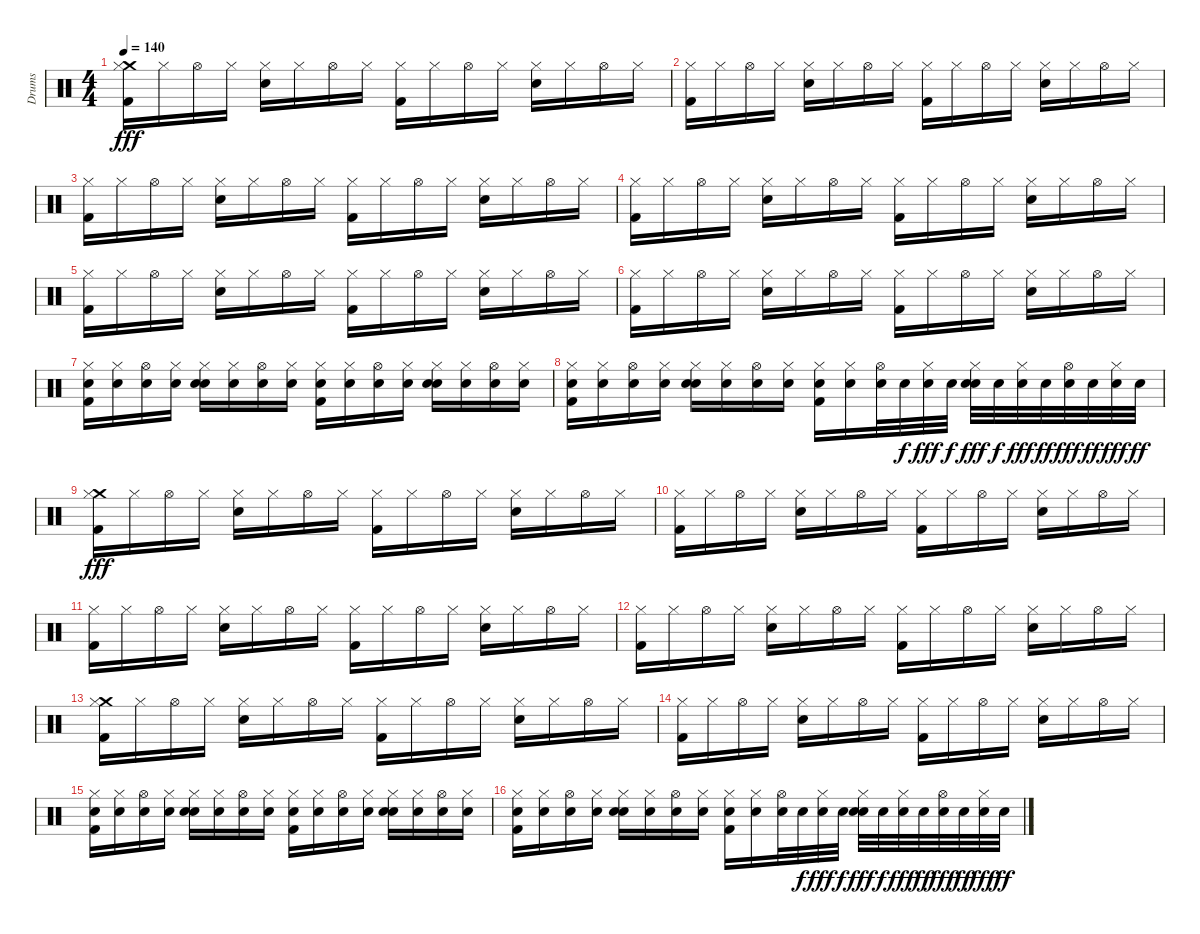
\track ("Drums" "Drums") {instrument percussion}
\staff {score}
\articulation defaults
\ts (4 4)
\tempo 140
\clef neutral
\ks c
("Crash medium (hit)" "Hi-Hat (closed)" "Kick (hit) 2").16{dy fff} "Hi-Hat (closed)".16 "Hi-Hat (open)".16 "Hi-Hat (closed)".16 ("Hi-Hat (closed)" "Electric Snare (hit)").16 "Hi-Hat (closed)".16 "Hi-Hat (open)".16 "Hi-Hat (closed)".16 ("Hi-Hat (closed)" "Kick (hit) 2").16 "Hi-Hat (closed)".16 "Hi-Hat (open)".16 "Hi-Hat (closed)".16 ("Hi-Hat (closed)" "Electric Snare (hit)").16 "Hi-Hat (closed)".16 "Hi-Hat (open)".16 "Hi-Hat (closed)".16 |
("Hi-Hat (closed)" "Kick (hit) 2").16 "Hi-Hat (closed)".16 "Hi-Hat (open)".16 "Hi-Hat (closed)".16 ("Hi-Hat (closed)" "Electric Snare (hit)").16 "Hi-Hat (closed)".16 "Hi-Hat (open)".16 "Hi-Hat (closed)".16 ("Hi-Hat (closed)" "Kick (hit) 2").16 "Hi-Hat (closed)".16 "Hi-Hat (open)".16 "Hi-Hat (closed)".16 ("Hi-Hat (closed)" "Electric Snare (hit)").16 "Hi-Hat (closed)".16 "Hi-Hat (open)".16 "Hi-Hat (closed)".16 |
("Hi-Hat (closed)" "Kick (hit) 2").16 "Hi-Hat (closed)".16 "Hi-Hat (open)".16 "Hi-Hat (closed)".16 ("Hi-Hat (closed)" "Electric Snare (hit)").16 "Hi-Hat (closed)".16 "Hi-Hat (open)".16 "Hi-Hat (closed)".16 ("Hi-Hat (closed)" "Kick (hit) 2").16 "Hi-Hat (closed)".16 "Hi-Hat (open)".16 "Hi-Hat (closed)".16 ("Hi-Hat (closed)" "Electric Snare (hit)").16 "Hi-Hat (closed)".16 "Hi-Hat (open)".16 "Hi-Hat (closed)".16 |
("Hi-Hat (closed)" "Kick (hit) 2").16 "Hi-Hat (closed)".16 "Hi-Hat (open)".16 "Hi-Hat (closed)".16 ("Hi-Hat (closed)" "Electric Snare (hit)").16 "Hi-Hat (closed)".16 "Hi-Hat (open)".16 "Hi-Hat (closed)".16 ("Hi-Hat (closed)" "Kick (hit) 2").16 "Hi-Hat (closed)".16 "Hi-Hat (open)".16 "Hi-Hat (closed)".16 ("Hi-Hat (closed)" "Electric Snare (hit)").16 "Hi-Hat (closed)".16 "Hi-Hat (open)".16 "Hi-Hat (closed)".16 |
("Hi-Hat (closed)" "Kick (hit) 2").16 "Hi-Hat (closed)".16 "Hi-Hat (open)".16 "Hi-Hat (closed)".16 ("Hi-Hat (closed)" "Electric Snare (hit)").16 "Hi-Hat (closed)".16 "Hi-Hat (open)".16 "Hi-Hat (closed)".16 ("Hi-Hat (closed)" "Kick (hit) 2").16 "Hi-Hat (closed)".16 "Hi-Hat (open)".16 "Hi-Hat (closed)".16 ("Hi-Hat (closed)" "Electric Snare (hit)").16 "Hi-Hat (closed)".16 "Hi-Hat (open)".16 "Hi-Hat (closed)".16 |
("Hi-Hat (closed)" "Kick (hit) 2").16 "Hi-Hat (closed)".16 "Hi-Hat (open)".16 "Hi-Hat (closed)".16 ("Hi-Hat (closed)" "Electric Snare (hit)").16 "Hi-Hat (closed)".16 "Hi-Hat (open)".16 "Hi-Hat (closed)".16 ("Hi-Hat (closed)" "Kick (hit) 2").16 "Hi-Hat (closed)".16 "Hi-Hat (open)".16 "Hi-Hat (closed)".16 ("Hi-Hat (closed)" "Electric Snare (hit)").16 "Hi-Hat (closed)".16 "Hi-Hat (open)".16 "Hi-Hat (closed)".16 |
("Snare (hit) 2" "Hi-Hat (closed)" "Kick (hit) 2").16 ("Snare (hit) 2" "Hi-Hat (closed)").16 ("Snare (hit) 2" "Hi-Hat (open)").16 ("Snare (hit) 2" "Hi-Hat (closed)").16 ("Snare (hit) 2" "Hi-Hat (closed)" "Electric Snare (hit)").16 ("Snare (hit) 2" "Hi-Hat (closed)").16 ("Snare (hit) 2" "Hi-Hat (open)").16 ("Snare (hit) 2" "Hi-Hat (closed)").16 ("Snare (hit) 2" "Hi-Hat (closed)" "Kick (hit) 2").16 ("Snare (hit) 2" "Hi-Hat (closed)").16 ("Snare (hit) 2" "Hi-Hat (open)").16 ("Snare (hit) 2" "Hi-Hat (closed)").16 ("Snare (hit) 2" "Hi-Hat (closed)" "Electric Snare (hit)").16 ("Snare (hit) 2" "Hi-Hat (closed)").16 ("Snare (hit) 2" "Hi-Hat (open)").16 ("Snare (hit) 2" "Hi-Hat (closed)").16 |
("Snare (hit) 2" "Hi-Hat (closed)" "Kick (hit) 2").16 ("Snare (hit) 2" "Hi-Hat (closed)").16 ("Snare (hit) 2" "Hi-Hat (open)").16 ("Snare (hit) 2" "Hi-Hat (closed)").16 ("Snare (hit) 2" "Hi-Hat (closed)" "Electric Snare (hit)").16 ("Snare (hit) 2" "Hi-Hat (closed)").16 ("Snare (hit) 2" "Hi-Hat (open)").16 ("Snare (hit) 2" "Hi-Hat (closed)").16 ("Snare (hit) 2" "Hi-Hat (closed)" "Kick (hit) 2").16 ("Snare (hit) 2" "Hi-Hat (closed)").16 ("Snare (hit) 2" "Hi-Hat (open)").32 "Snare (hit) 2".32{dy f} ("Snare (hit) 2" "Hi-Hat (closed)").32{dy fff} "Snare (hit) 2".32{dy f} ("Snare (hit) 2" "Hi-Hat (closed)" "Electric Snare (hit)").32{dy fff} "Snare (hit) 2".32{dy f} ("Snare (hit) 2" "Hi-Hat (closed)").32{dy fff} "Snare (hit) 2".32{dy ff} ("Snare (hit) 2" "Hi-Hat (open)").32{dy fff} "Snare (hit) 2".32{dy ff} ("Snare (hit) 2" "Hi-Hat (closed)").32{dy fff} "Snare (hit) 2".32{dy ff} |
("Crash medium (hit)" "Hi-Hat (closed)" "Kick (hit) 2").16{dy fff} "Hi-Hat (closed)".16 "Hi-Hat (open)".16 "Hi-Hat (closed)".16 ("Hi-Hat (closed)" "Electric Snare (hit)").16 "Hi-Hat (closed)".16 "Hi-Hat (open)".16 "Hi-Hat (closed)".16 ("Hi-Hat (closed)" "Kick (hit) 2").16 "Hi-Hat (closed)".16 "Hi-Hat (open)".16 "Hi-Hat (closed)".16 ("Hi-Hat (closed)" "Electric Snare (hit)").16 "Hi-Hat (closed)".16 "Hi-Hat (open)".16 "Hi-Hat (closed)".16 |
("Hi-Hat (closed)" "Kick (hit) 2").16 "Hi-Hat (closed)".16 "Hi-Hat (open)".16 "Hi-Hat (closed)".16 ("Hi-Hat (closed)" "Electric Snare (hit)").16 "Hi-Hat (closed)".16 "Hi-Hat (open)".16 "Hi-Hat (closed)".16 ("Hi-Hat (closed)" "Kick (hit) 2").16 "Hi-Hat (closed)".16 "Hi-Hat (open)".16 "Hi-Hat (closed)".16 ("Hi-Hat (closed)" "Electric Snare (hit)").16 "Hi-Hat (closed)".16 "Hi-Hat (open)".16 "Hi-Hat (closed)".16 |
("Hi-Hat (closed)" "Kick (hit) 2").16 "Hi-Hat (closed)".16 "Hi-Hat (open)".16 "Hi-Hat (closed)".16 ("Hi-Hat (closed)" "Electric Snare (hit)").16 "Hi-Hat (closed)".16 "Hi-Hat (open)".16 "Hi-Hat (closed)".16 ("Hi-Hat (closed)" "Kick (hit) 2").16 "Hi-Hat (closed)".16 "Hi-Hat (open)".16 "Hi-Hat (closed)".16 ("Hi-Hat (closed)" "Electric Snare (hit)").16 "Hi-Hat (closed)".16 "Hi-Hat (open)".16 "Hi-Hat (closed)".16 |
("Hi-Hat (closed)" "Kick (hit) 2").16 "Hi-Hat (closed)".16 "Hi-Hat (open)".16 "Hi-Hat (closed)".16 ("Hi-Hat (closed)" "Electric Snare (hit)").16 "Hi-Hat (closed)".16 "Hi-Hat (open)".16 "Hi-Hat (closed)".16 ("Hi-Hat (closed)" "Kick (hit) 2").16 "Hi-Hat (closed)".16 "Hi-Hat (open)".16 "Hi-Hat (closed)".16 ("Hi-Hat (closed)" "Electric Snare (hit)").16 "Hi-Hat (closed)".16 "Hi-Hat (open)".16 "Hi-Hat (closed)".16 |
("Crash medium (hit)" "Hi-Hat (closed)" "Kick (hit) 2").16 "Hi-Hat (closed)".16 "Hi-Hat (open)".16 "Hi-Hat (closed)".16 ("Hi-Hat (closed)" "Electric Snare (hit)").16 "Hi-Hat (closed)".16 "Hi-Hat (open)".16 "Hi-Hat (closed)".16 ("Hi-Hat (closed)" "Kick (hit) 2").16 "Hi-Hat (closed)".16 "Hi-Hat (open)".16 "Hi-Hat (closed)".16 ("Hi-Hat (closed)" "Electric Snare (hit)").16 "Hi-Hat (closed)".16 "Hi-Hat (open)".16 "Hi-Hat (closed)".16 |
("Hi-Hat (closed)" "Kick (hit) 2").16 "Hi-Hat (closed)".16 "Hi-Hat (open)".16 "Hi-Hat (closed)".16 ("Hi-Hat (closed)" "Electric Snare (hit)").16 "Hi-Hat (closed)".16 "Hi-Hat (open)".16 "Hi-Hat (closed)".16 ("Hi-Hat (closed)" "Kick (hit) 2").16 "Hi-Hat (closed)".16 "Hi-Hat (open)".16 "Hi-Hat (closed)".16 ("Hi-Hat (closed)" "Electric Snare (hit)").16 "Hi-Hat (closed)".16 "Hi-Hat (open)".16 "Hi-Hat (closed)".16 |
("Snare (hit) 2" "Hi-Hat (closed)" "Kick (hit) 2").16 ("Snare (hit) 2" "Hi-Hat (closed)").16 ("Snare (hit) 2" "Hi-Hat (open)").16 ("Snare (hit) 2" "Hi-Hat (closed)").16 ("Snare (hit) 2" "Hi-Hat (closed)" "Electric Snare (hit)").16 ("Snare (hit) 2" "Hi-Hat (closed)").16 ("Snare (hit) 2" "Hi-Hat (open)").16 ("Snare (hit) 2" "Hi-Hat (closed)").16 ("Snare (hit) 2" "Hi-Hat (closed)" "Kick (hit) 2").16 ("Snare (hit) 2" "Hi-Hat (closed)").16 ("Snare (hit) 2" "Hi-Hat (open)").16 ("Snare (hit) 2" "Hi-Hat (closed)").16 ("Snare (hit) 2" "Hi-Hat (closed)" "Electric Snare (hit)").16 ("Snare (hit) 2" "Hi-Hat (closed)").16 ("Snare (hit) 2" "Hi-Hat (open)").16 ("Snare (hit) 2" "Hi-Hat (closed)").16 |
("Snare (hit) 2" "Hi-Hat (closed)" "Kick (hit) 2").16 ("Snare (hit) 2" "Hi-Hat (closed)").16 ("Snare (hit) 2" "Hi-Hat (open)").16 ("Snare (hit) 2" "Hi-Hat (closed)").16 ("Snare (hit) 2" "Hi-Hat (closed)" "Electric Snare (hit)").16 ("Snare (hit) 2" "Hi-Hat (closed)").16 ("Snare (hit) 2" "Hi-Hat (open)").16 ("Snare (hit) 2" "Hi-Hat (closed)").16 ("Snare (hit) 2" "Hi-Hat (closed)" "Kick (hit) 2").16 ("Snare (hit) 2" "Hi-Hat (closed)").16 ("Snare (hit) 2" "Hi-Hat (open)").32 "Snare (hit) 2".32{dy f} ("Snare (hit) 2" "Hi-Hat (closed)").32{dy fff} "Snare (hit) 2".32{dy f} ("Snare (hit) 2" "Hi-Hat (closed)" "Electric Snare (hit)").32{dy fff} "Snare (hit) 2".32{dy f} ("Snare (hit) 2" "Hi-Hat (closed)").32{dy fff} "Snare (hit) 2".32{dy ff} ("Snare (hit) 2" "Hi-Hat (open)").32{dy fff} "Snare (hit) 2".32{dy ff} ("Snare (hit) 2" "Hi-Hat (closed)").32{dy fff} "Snare (hit) 2".32{dy ff}
